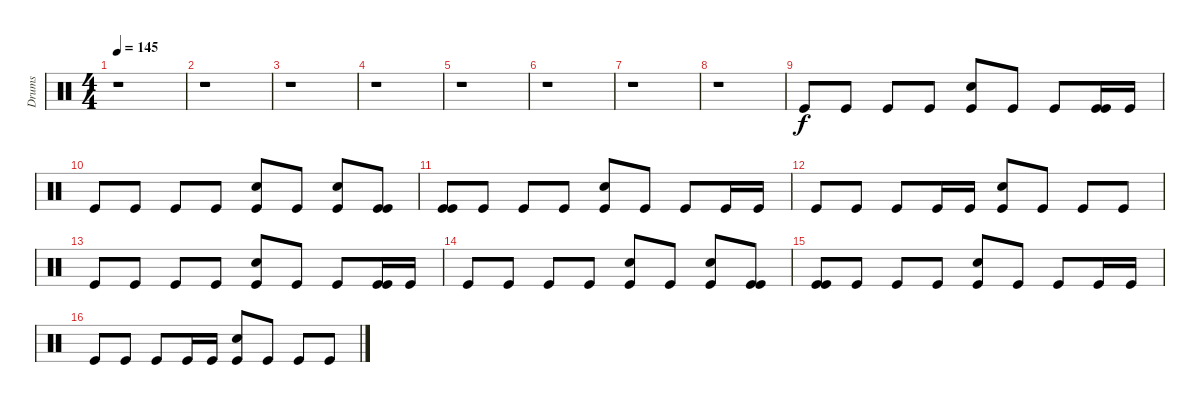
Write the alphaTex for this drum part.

\track ("Drums" "Drums") {instrument percussion}
\staff {score}
\articulation defaults
\ts (4 4)
\tempo 145
\clef neutral
\ks c
r.1{dy f} |
r.1 |
r.1 |
r.1 |
r.1 |
r.1 |
r.1 |
r.1 |
"Kick (hit)".8 "Kick (hit)".8 "Kick (hit)".8 "Kick (hit)".8 ("Snare (hit) 2" "Kick (hit)").8 "Kick (hit)".8 "Kick (hit)".8 ("Kick (hit)" "Kick (hit)").16 "Kick (hit)".16 |
"Kick (hit)".8 "Kick (hit)".8 "Kick (hit)".8 "Kick (hit)".8 ("Snare (hit) 2" "Kick (hit)").8 "Kick (hit)".8 ("Snare (hit) 2" "Kick (hit)").8 ("Kick (hit)" "Kick (hit)").8 |
("Kick (hit)" "Kick (hit)").8 "Kick (hit)".8 "Kick (hit)".8 "Kick (hit)".8 ("Snare (hit) 2" "Kick (hit)").8 "Kick (hit)".8 "Kick (hit)".8 "Kick (hit)".16 "Kick (hit)".16 |
"Kick (hit)".8 "Kick (hit)".8 "Kick (hit)".8 "Kick (hit)".16 "Kick (hit)".16 ("Snare (hit) 2" "Kick (hit)").8 "Kick (hit)".8 "Kick (hit)".8 "Kick (hit)".8 |
"Kick (hit)".8 "Kick (hit)".8 "Kick (hit)".8 "Kick (hit)".8 ("Snare (hit) 2" "Kick (hit)").8 "Kick (hit)".8 "Kick (hit)".8 ("Kick (hit)" "Kick (hit)").16 "Kick (hit)".16 |
"Kick (hit)".8 "Kick (hit)".8 "Kick (hit)".8 "Kick (hit)".8 ("Snare (hit) 2" "Kick (hit)").8 "Kick (hit)".8 ("Snare (hit) 2" "Kick (hit)").8 ("Kick (hit)" "Kick (hit)").8 |
("Kick (hit)" "Kick (hit)").8 "Kick (hit)".8 "Kick (hit)".8 "Kick (hit)".8 ("Snare (hit) 2" "Kick (hit)").8 "Kick (hit)".8 "Kick (hit)".8 "Kick (hit)".16 "Kick (hit)".16 |
"Kick (hit)".8 "Kick (hit)".8 "Kick (hit)".8 "Kick (hit)".16 "Kick (hit)".16 ("Snare (hit) 2" "Kick (hit)").8 "Kick (hit)".8 "Kick (hit)".8 "Kick (hit)".8
